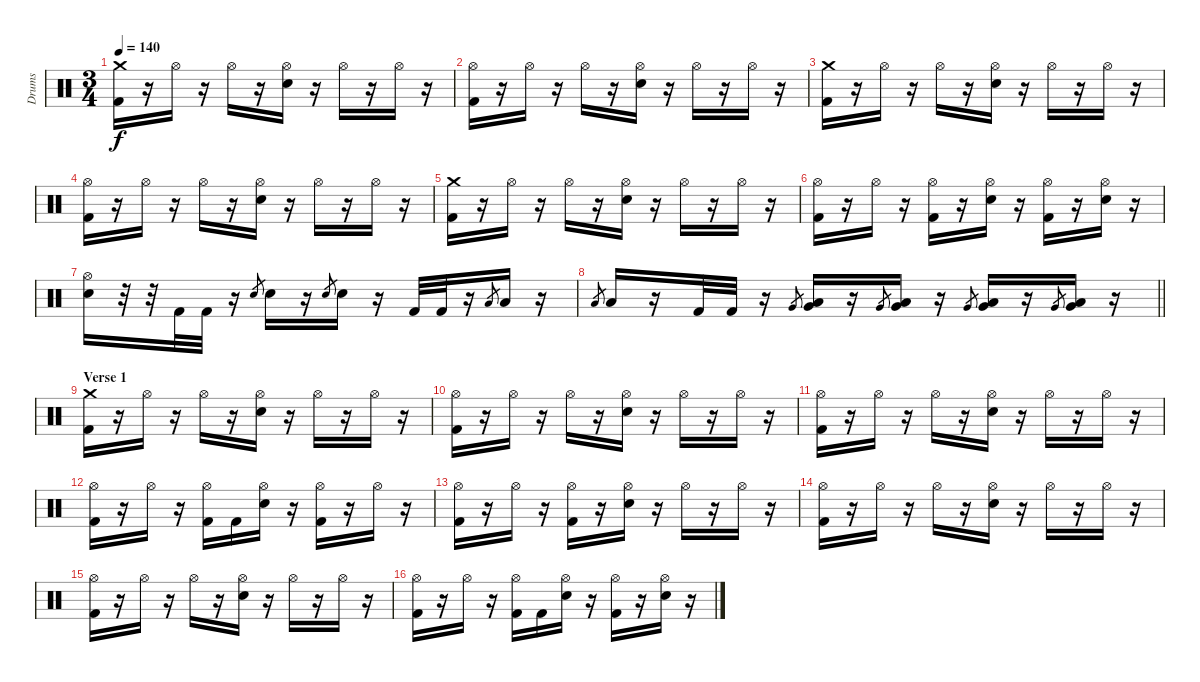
\track ("Drums" "Drums") {instrument percussion}
\staff {score}
\articulation defaults
\ts (3 4)
\tempo 140
\clef neutral
\ks c
("Crash medium (hit)" "Kick (hit) 2").16{dy f} r.16 "Hi-Hat (open)".16 r.16 "Hi-Hat (open)".16 r.16 ("Hi-Hat (open)" "Electric Snare (hit)").16 r.16 "Hi-Hat (open)".16 r.16 "Hi-Hat (open)".16 r.16 |
("Hi-Hat (open)" "Kick (hit) 2").16 r.16 "Hi-Hat (open)".16 r.16 "Hi-Hat (open)".16 r.16 ("Hi-Hat (open)" "Electric Snare (hit)").16 r.16 "Hi-Hat (open)".16 r.16 "Hi-Hat (open)".16 r.16 |
("Crash medium (hit)" "Kick (hit) 2").16 r.16 "Hi-Hat (open)".16 r.16 "Hi-Hat (open)".16 r.16 ("Hi-Hat (open)" "Electric Snare (hit)").16 r.16 "Hi-Hat (open)".16 r.16 "Hi-Hat (open)".16 r.16 |
("Hi-Hat (open)" "Kick (hit) 2").16 r.16 "Hi-Hat (open)".16 r.16 "Hi-Hat (open)".16 r.16 ("Hi-Hat (open)" "Electric Snare (hit)").16 r.16 "Hi-Hat (open)".16 r.16 "Hi-Hat (open)".16 r.16 |
("Crash medium (hit)" "Kick (hit) 2").16 r.16 "Hi-Hat (open)".16 r.16 "Hi-Hat (open)".16 r.16 ("Hi-Hat (open)" "Electric Snare (hit)").16 r.16 "Hi-Hat (open)".16 r.16 "Hi-Hat (open)".16 r.16 |
("Hi-Hat (open)" "Kick (hit) 2").16 r.16 "Hi-Hat (open)".16 r.16 ("Hi-Hat (open)" "Kick (hit) 2").16 r.16 ("Hi-Hat (open)" "Electric Snare (hit)").16 r.16 ("Hi-Hat (open)" "Kick (hit) 2").16 r.16 ("Hi-Hat (open)" "Electric Snare (hit)").16 r.16 |
("Hi-Hat (open)" "Electric Snare (hit)").16 r.32 r.32 "Kick (hit) 2".32 "Kick (hit) 2".32 r.16 "Electric Snare (hit)".8{gr} "Electric Snare (hit)".16 r.16 "Electric Snare (hit)".8{gr} "Electric Snare (hit)".16 r.16 "Kick (hit) 2".32 "Kick (hit) 2".32 r.16 "Low Tom (hit)".8{gr} "Low Tom (hit)".16 r.16 |
\barLineRight lightlight "Low Tom (hit)".8{gr} "Low Tom (hit)".16
r.16 "Kick (hit) 2".32 "Kick (hit) 2".32 r.16 "Very Low Tom (hit)".8{gr} ("Low Floor Tom (hit)" "Very Low Tom (hit)").16 r.16 "Very Low Tom (hit)".8{gr} ("Low Floor Tom (hit)" "Very Low Tom (hit)").16 r.16 "Very Low Tom (hit)".8{gr} ("Low Floor Tom (hit)" "Very Low Tom (hit)").16 r.16 "Very Low Tom (hit)".8{gr} ("Low Floor Tom (hit)" "Very Low Tom (hit)").16 r.16 |
\section ("" "Verse 1")
("Crash medium (hit)" "Kick (hit) 2").16 r.16 "Hi-Hat (open)".16 r.16 "Hi-Hat (open)".16 r.16 ("Hi-Hat (open)" "Electric Snare (hit)").16 r.16 "Hi-Hat (open)".16 r.16 "Hi-Hat (open)".16 r.16 |
("Hi-Hat (open)" "Kick (hit) 2").16 r.16 "Hi-Hat (open)".16 r.16 "Hi-Hat (open)".16 r.16 ("Hi-Hat (open)" "Electric Snare (hit)").16 r.16 "Hi-Hat (open)".16 r.16 "Hi-Hat (open)".16 r.16 |
("Hi-Hat (open)" "Kick (hit) 2").16 r.16 "Hi-Hat (open)".16 r.16 "Hi-Hat (open)".16 r.16 ("Hi-Hat (open)" "Electric Snare (hit)").16 r.16 "Hi-Hat (open)".16 r.16 "Hi-Hat (open)".16 r.16 |
("Hi-Hat (open)" "Kick (hit) 2").16 r.16 "Hi-Hat (open)".16 r.16 ("Hi-Hat (open)" "Kick (hit) 2").16 "Kick (hit) 2".16 ("Hi-Hat (open)" "Electric Snare (hit)").16 r.16 ("Hi-Hat (open)" "Kick (hit) 2").16 r.16 "Hi-Hat (open)".16 r.16 |
("Hi-Hat (open)" "Kick (hit) 2").16 r.16 "Hi-Hat (open)".16 r.16 ("Hi-Hat (open)" "Kick (hit) 2").16 r.16 ("Hi-Hat (open)" "Electric Snare (hit)").16 r.16 "Hi-Hat (open)".16 r.16 "Hi-Hat (open)".16 r.16 |
("Hi-Hat (open)" "Kick (hit) 2").16 r.16 "Hi-Hat (open)".16 r.16 "Hi-Hat (open)".16 r.16 ("Hi-Hat (open)" "Electric Snare (hit)").16 r.16 "Hi-Hat (open)".16 r.16 "Hi-Hat (open)".16 r.16 |
("Hi-Hat (open)" "Kick (hit) 2").16 r.16 "Hi-Hat (open)".16 r.16 "Hi-Hat (open)".16 r.16 ("Hi-Hat (open)" "Electric Snare (hit)").16 r.16 "Hi-Hat (open)".16 r.16 "Hi-Hat (open)".16 r.16 |
("Hi-Hat (open)" "Kick (hit) 2").16 r.16 "Hi-Hat (open)".16 r.16 ("Hi-Hat (open)" "Kick (hit) 2").16 "Kick (hit) 2".16 ("Hi-Hat (open)" "Electric Snare (hit)").16 r.16 ("Hi-Hat (open)" "Kick (hit) 2").16 r.16 ("Hi-Hat (open)" "Electric Snare (hit)").16 r.16
